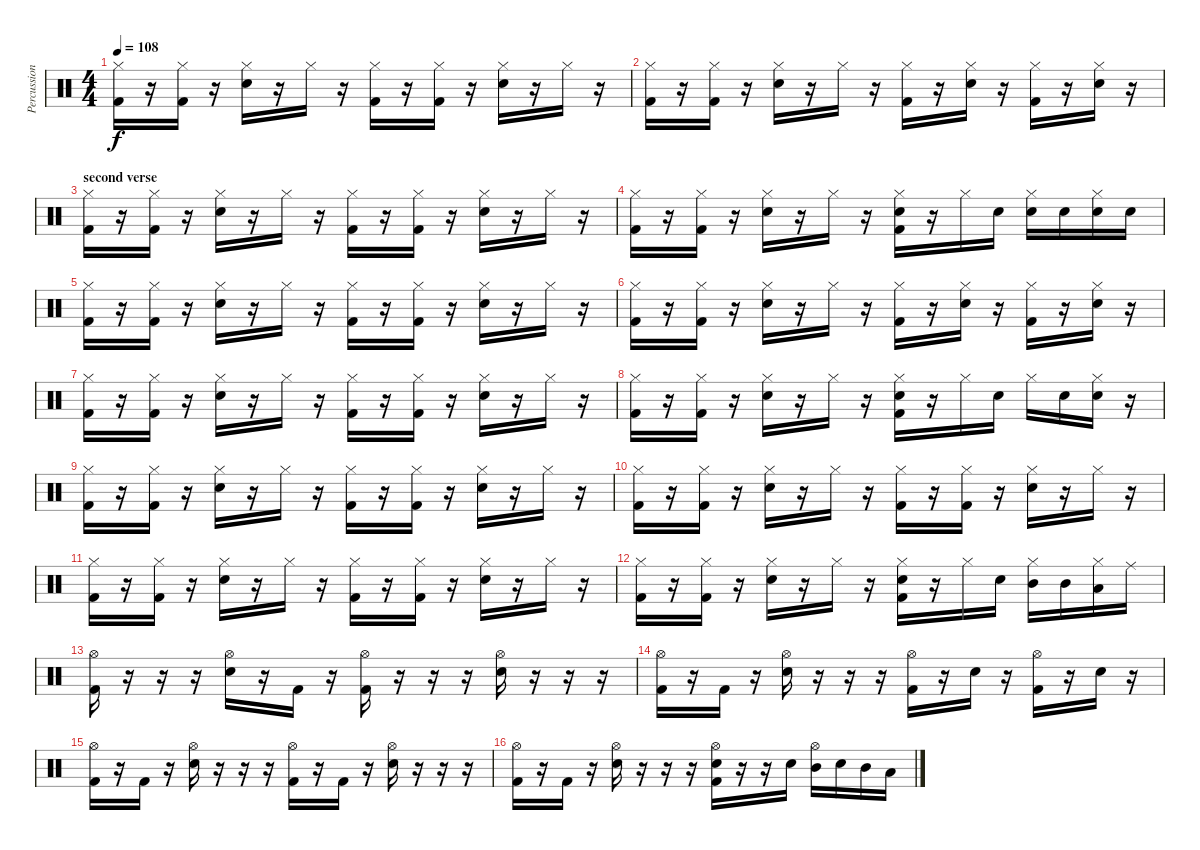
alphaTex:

\track ("Percussion" "Percussion") {instrument percussion}
\staff {score}
\articulation defaults
\ts (4 4)
\tempo 108
\clef neutral
\ks c
("Hi-Hat (closed)" "Kick (hit) 2").16{dy f} r.16 ("Hi-Hat (closed)" "Kick (hit) 2").16 r.16 ("Snare (hit) 2" "Hi-Hat (closed)").16 r.16 "Hi-Hat (closed)".16 r.16 ("Hi-Hat (closed)" "Kick (hit) 2").16 r.16 ("Hi-Hat (closed)" "Kick (hit) 2").16 r.16 ("Snare (hit) 2" "Hi-Hat (closed)").16 r.16 "Hi-Hat (closed)".16 r.16 |
("Hi-Hat (closed)" "Kick (hit) 2").16 r.16 ("Hi-Hat (closed)" "Kick (hit) 2").16 r.16 ("Snare (hit) 2" "Hi-Hat (closed)").16 r.16 "Hi-Hat (closed)".16 r.16 ("Hi-Hat (closed)" "Kick (hit) 2").16 r.16 ("Snare (hit) 2" "Hi-Hat (closed)").16 r.16 ("Hi-Hat (closed)" "Kick (hit) 2").16 r.16 ("Snare (hit) 2" "Hi-Hat (closed)").16 r.16 |
\section ("" "second verse")
("Hi-Hat (closed)" "Kick (hit) 2").16 r.16 ("Hi-Hat (closed)" "Kick (hit) 2").16 r.16 ("Snare (hit) 2" "Hi-Hat (closed)").16 r.16 "Hi-Hat (closed)".16 r.16 ("Hi-Hat (closed)" "Kick (hit) 2").16 r.16 ("Hi-Hat (closed)" "Kick (hit) 2").16 r.16 ("Snare (hit) 2" "Hi-Hat (closed)").16 r.16 "Hi-Hat (closed)".16 r.16 |
("Hi-Hat (closed)" "Kick (hit) 2").16 r.16 ("Hi-Hat (closed)" "Kick (hit) 2").16 r.16 ("Snare (hit) 2" "Hi-Hat (closed)").16 r.16 "Hi-Hat (closed)".16 r.16 ("Snare (hit) 2" "Hi-Hat (closed)" "Kick (hit) 2").16 r.16 "Hi-Hat (closed)".16 "Snare (hit) 2".16 ("Snare (hit) 2" "Hi-Hat (closed)").16 "Snare (hit) 2".16 ("Snare (hit) 2" "Hi-Hat (closed)").16 "Snare (hit) 2".16 |
("Hi-Hat (closed)" "Kick (hit) 2").16 r.16 ("Hi-Hat (closed)" "Kick (hit) 2").16 r.16 ("Snare (hit) 2" "Hi-Hat (closed)").16 r.16 "Hi-Hat (closed)".16 r.16 ("Hi-Hat (closed)" "Kick (hit) 2").16 r.16 ("Hi-Hat (closed)" "Kick (hit) 2").16 r.16 ("Snare (hit) 2" "Hi-Hat (closed)").16 r.16 "Hi-Hat (closed)".16 r.16 |
("Hi-Hat (closed)" "Kick (hit) 2").16 r.16 ("Hi-Hat (closed)" "Kick (hit) 2").16 r.16 ("Snare (hit) 2" "Hi-Hat (closed)").16 r.16 "Hi-Hat (closed)".16 r.16 ("Hi-Hat (closed)" "Kick (hit) 2").16 r.16 ("Snare (hit) 2" "Hi-Hat (closed)").16 r.16 ("Hi-Hat (closed)" "Kick (hit) 2").16 r.16 ("Snare (hit) 2" "Hi-Hat (closed)").16 r.16 |
("Hi-Hat (closed)" "Kick (hit) 2").16 r.16 ("Hi-Hat (closed)" "Kick (hit) 2").16 r.16 ("Snare (hit) 2" "Hi-Hat (closed)").16 r.16 "Hi-Hat (closed)".16 r.16 ("Hi-Hat (closed)" "Kick (hit) 2").16 r.16 ("Hi-Hat (closed)" "Kick (hit) 2").16 r.16 ("Snare (hit) 2" "Hi-Hat (closed)").16 r.16 "Hi-Hat (closed)".16 r.16 |
("Hi-Hat (closed)" "Kick (hit) 2").16 r.16 ("Hi-Hat (closed)" "Kick (hit) 2").16 r.16 ("Snare (hit) 2" "Hi-Hat (closed)").16 r.16 "Hi-Hat (closed)".16 r.16 ("Snare (hit) 2" "Hi-Hat (closed)" "Kick (hit) 2").16 r.16 "Hi-Hat (closed)".16 "Snare (hit) 2".16 "Hi-Hat (closed)".16 "Snare (hit) 2".16 ("Snare (hit) 2" "Hi-Hat (closed)").16 r.16 |
("Hi-Hat (closed)" "Kick (hit) 2").16 r.16 ("Hi-Hat (closed)" "Kick (hit) 2").16 r.16 ("Snare (hit) 2" "Hi-Hat (closed)").16 r.16 "Hi-Hat (closed)".16 r.16 ("Hi-Hat (closed)" "Kick (hit) 2").16 r.16 ("Hi-Hat (closed)" "Kick (hit) 2").16 r.16 ("Snare (hit) 2" "Hi-Hat (closed)").16 r.16 "Hi-Hat (closed)".16 r.16 |
("Hi-Hat (closed)" "Kick (hit) 2").16 r.16 ("Hi-Hat (closed)" "Kick (hit) 2").16 r.16 ("Snare (hit) 2" "Hi-Hat (closed)").16 r.16 "Hi-Hat (closed)".16 r.16 ("Hi-Hat (closed)" "Kick (hit) 2").16 r.16 ("Hi-Hat (closed)" "Kick (hit) 2").16 r.16 ("Snare (hit) 2" "Hi-Hat (closed)").16 r.16 "Hi-Hat (closed)".16 r.16 |
("Hi-Hat (closed)" "Kick (hit) 2").16 r.16 ("Hi-Hat (closed)" "Kick (hit) 2").16 r.16 ("Snare (hit) 2" "Hi-Hat (closed)").16 r.16 "Hi-Hat (closed)".16 r.16 ("Hi-Hat (closed)" "Kick (hit) 2").16 r.16 ("Hi-Hat (closed)" "Kick (hit) 2").16 r.16 ("Snare (hit) 2" "Hi-Hat (closed)").16 r.16 "Hi-Hat (closed)".16 r.16 |
("Hi-Hat (closed)" "Kick (hit) 2").16 r.16 ("Hi-Hat (closed)" "Kick (hit) 2").16 r.16 ("Snare (hit) 2" "Hi-Hat (closed)").16 r.16 "Hi-Hat (closed)".16 r.16 ("Snare (hit) 2" "Hi-Hat (closed)" "Kick (hit) 2").16 r.16 "Hi-Hat (closed)".16 "Snare (hit) 2".16 ("Mid Tom (hit)" "Hi-Hat (closed)").16 "Mid Tom (hit)".16 ("Low Tom (hit)" "Hi-Hat (closed)").16 "Ride (middle)".16 |
("Hi-Hat (open)" "Kick (hit) 2").16 r.16 r.16 r.16 ("Snare (hit) 2" "Hi-Hat (open)").16 r.16 "Kick (hit) 2".16 r.16 ("Hi-Hat (open)" "Kick (hit) 2").16 r.16 r.16 r.16 ("Snare (hit) 2" "Hi-Hat (open)").16 r.16 r.16 r.16 |
("Hi-Hat (open)" "Kick (hit) 2").16 r.16 "Kick (hit) 2".16 r.16 ("Snare (hit) 2" "Hi-Hat (open)").16 r.16 r.16 r.16 ("Hi-Hat (open)" "Kick (hit) 2").16 r.16 "Snare (hit) 2".16 r.16 ("Hi-Hat (open)" "Kick (hit) 2").16 r.16 "Snare (hit) 2".16 r.16 |
("Hi-Hat (open)" "Kick (hit) 2").16 r.16 "Kick (hit) 2".16 r.16 ("Snare (hit) 2" "Hi-Hat (open)").16 r.16 r.16 r.16 ("Hi-Hat (open)" "Kick (hit) 2").16 r.16 "Kick (hit) 2".16 r.16 ("Snare (hit) 2" "Hi-Hat (open)").16 r.16 r.16 r.16 |
("Hi-Hat (open)" "Kick (hit) 2").16 r.16 "Kick (hit) 2".16 r.16 ("Snare (hit) 2" "Hi-Hat (open)").16 r.16 r.16 r.16 ("Snare (hit) 2" "Hi-Hat (open)" "Kick (hit) 2").16 r.16 r.16 "Snare (hit) 2".16 ("Mid Tom (hit)" "Hi-Hat (open)").16 "Snare (hit) 2".16 "Mid Tom (hit)".16 "Low Tom (hit)".16
